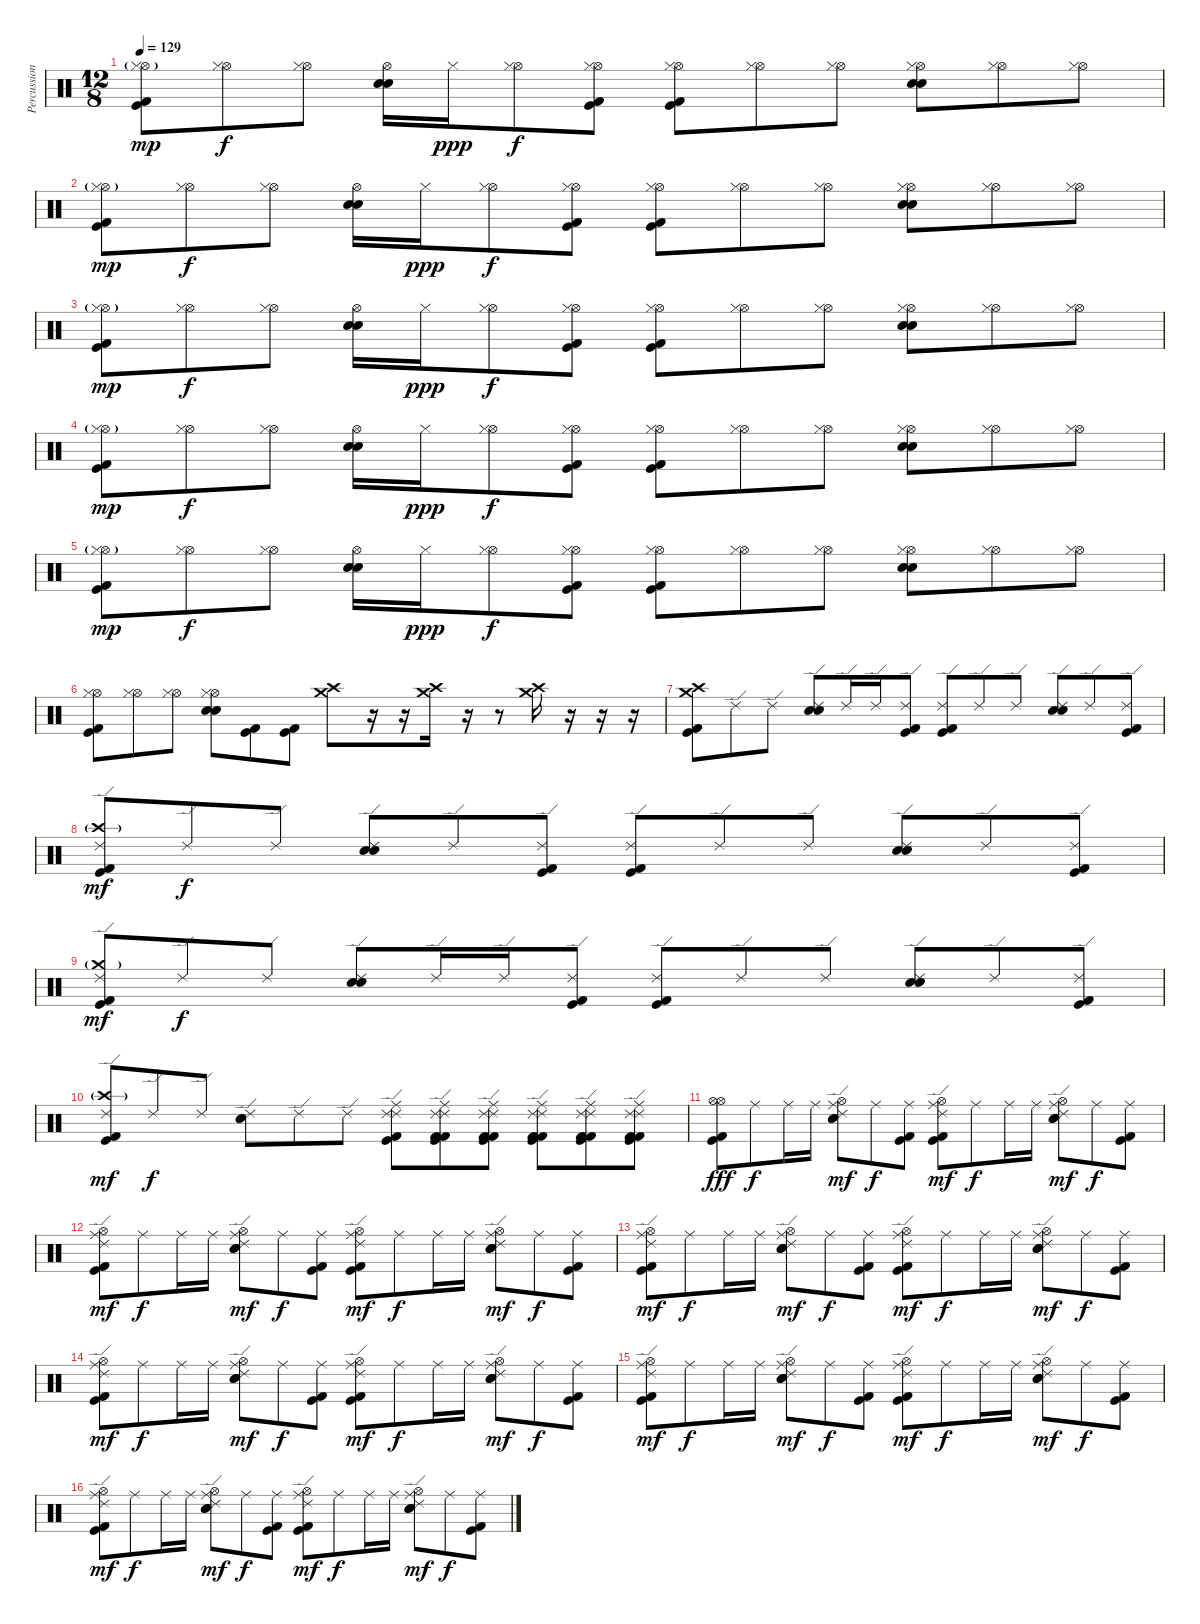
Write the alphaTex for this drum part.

\track ("Percussion" "Percussion") {instrument percussion}
\staff {score}
\articulation defaults
\ts (12 8)
\tempo 129
\clef neutral
\ks c
("Hi-Hat (open)"{g} "Hi-Hat (closed)" "Kick (hit) 2" "Kick (hit)").8{dy mp} ("Hi-Hat (open)" "Hi-Hat (closed)").8{dy f} ("Hi-Hat (open)" "Hi-Hat (closed)").8 ("Hi-Hat (open)" "Electric Snare (hit)" "Electric Snare (hit)").16 "Hi-Hat (closed)".16{dy ppp} ("Hi-Hat (open)" "Hi-Hat (closed)").8{dy f} ("Hi-Hat (open)" "Hi-Hat (closed)" "Kick (hit) 2" "Kick (hit)").8 ("Hi-Hat (open)" "Hi-Hat (closed)" "Kick (hit) 2" "Kick (hit)").8 ("Hi-Hat (open)" "Hi-Hat (closed)").8 ("Hi-Hat (open)" "Hi-Hat (closed)").8 ("Hi-Hat (open)" "Hi-Hat (closed)" "Electric Snare (hit)" "Electric Snare (hit)").8 ("Hi-Hat (open)" "Hi-Hat (closed)").8 ("Hi-Hat (open)" "Hi-Hat (closed)").8 |
("Hi-Hat (open)"{g} "Hi-Hat (closed)" "Kick (hit) 2" "Kick (hit)").8{dy mp} ("Hi-Hat (open)" "Hi-Hat (closed)").8{dy f} ("Hi-Hat (open)" "Hi-Hat (closed)").8 ("Hi-Hat (open)" "Electric Snare (hit)" "Electric Snare (hit)").16 "Hi-Hat (closed)".16{dy ppp} ("Hi-Hat (open)" "Hi-Hat (closed)").8{dy f} ("Hi-Hat (open)" "Hi-Hat (closed)" "Kick (hit) 2" "Kick (hit)").8 ("Hi-Hat (open)" "Hi-Hat (closed)" "Kick (hit) 2" "Kick (hit)").8 ("Hi-Hat (open)" "Hi-Hat (closed)").8 ("Hi-Hat (open)" "Hi-Hat (closed)").8 ("Hi-Hat (open)" "Hi-Hat (closed)" "Electric Snare (hit)" "Electric Snare (hit)").8 ("Hi-Hat (open)" "Hi-Hat (closed)").8 ("Hi-Hat (open)" "Hi-Hat (closed)").8 |
("Hi-Hat (open)"{g} "Hi-Hat (closed)" "Kick (hit) 2" "Kick (hit)").8{dy mp} ("Hi-Hat (open)" "Hi-Hat (closed)").8{dy f} ("Hi-Hat (open)" "Hi-Hat (closed)").8 ("Hi-Hat (open)" "Electric Snare (hit)" "Electric Snare (hit)").16 "Hi-Hat (closed)".16{dy ppp} ("Hi-Hat (open)" "Hi-Hat (closed)").8{dy f} ("Hi-Hat (open)" "Hi-Hat (closed)" "Kick (hit) 2" "Kick (hit)").8 ("Hi-Hat (open)" "Hi-Hat (closed)" "Kick (hit) 2" "Kick (hit)").8 ("Hi-Hat (open)" "Hi-Hat (closed)").8 ("Hi-Hat (open)" "Hi-Hat (closed)").8 ("Hi-Hat (open)" "Hi-Hat (closed)" "Electric Snare (hit)" "Electric Snare (hit)").8 ("Hi-Hat (open)" "Hi-Hat (closed)").8 ("Hi-Hat (open)" "Hi-Hat (closed)").8 |
("Hi-Hat (open)"{g} "Hi-Hat (closed)" "Kick (hit) 2" "Kick (hit)").8{dy mp} ("Hi-Hat (open)" "Hi-Hat (closed)").8{dy f} ("Hi-Hat (open)" "Hi-Hat (closed)").8 ("Hi-Hat (open)" "Electric Snare (hit)" "Electric Snare (hit)").16 "Hi-Hat (closed)".16{dy ppp} ("Hi-Hat (open)" "Hi-Hat (closed)").8{dy f} ("Hi-Hat (open)" "Hi-Hat (closed)" "Kick (hit) 2" "Kick (hit)").8 ("Hi-Hat (open)" "Hi-Hat (closed)" "Kick (hit) 2" "Kick (hit)").8 ("Hi-Hat (open)" "Hi-Hat (closed)").8 ("Hi-Hat (open)" "Hi-Hat (closed)").8 ("Hi-Hat (open)" "Hi-Hat (closed)" "Electric Snare (hit)" "Electric Snare (hit)").8 ("Hi-Hat (open)" "Hi-Hat (closed)").8 ("Hi-Hat (open)" "Hi-Hat (closed)").8 |
("Hi-Hat (open)"{g} "Hi-Hat (closed)" "Kick (hit) 2" "Kick (hit)").8{dy mp} ("Hi-Hat (open)" "Hi-Hat (closed)").8{dy f} ("Hi-Hat (open)" "Hi-Hat (closed)").8 ("Hi-Hat (open)" "Electric Snare (hit)" "Electric Snare (hit)").16 "Hi-Hat (closed)".16{dy ppp} ("Hi-Hat (open)" "Hi-Hat (closed)").8{dy f} ("Hi-Hat (open)" "Hi-Hat (closed)" "Kick (hit) 2" "Kick (hit)").8 ("Hi-Hat (open)" "Hi-Hat (closed)" "Kick (hit) 2" "Kick (hit)").8 ("Hi-Hat (open)" "Hi-Hat (closed)").8 ("Hi-Hat (open)" "Hi-Hat (closed)").8 ("Hi-Hat (open)" "Hi-Hat (closed)" "Electric Snare (hit)" "Electric Snare (hit)").8 ("Hi-Hat (open)" "Hi-Hat (closed)").8 ("Hi-Hat (open)" "Hi-Hat (closed)").8 |
("Hi-Hat (open)" "Hi-Hat (closed)" "Kick (hit)" "Kick (hit) 2").8 ("Hi-Hat (open)" "Hi-Hat (closed)").8 ("Hi-Hat (open)" "Hi-Hat (closed)").8 ("Hi-Hat (open)" "Hi-Hat (closed)" "Electric Snare (hit)" "Electric Snare (hit)").8 ("Kick (hit)" "Kick (hit) 2").8 ("Kick (hit)" "Kick (hit) 2").8 ("Crash high (hit)" "Crash medium (hit)").8 r.16 r.16 ("Crash high (hit)" "Crash medium (hit)").16 r.16 r.8 ("Crash high (hit)" "Crash medium (hit)").16 r.16 r.16 r.16 |
("Crash high (hit)" "Crash medium (hit)" "Kick (hit)" "Kick (hit) 2").8 "Ride (edge) 2".8 "Ride (edge) 2".8 ("Ride (edge) 2" "Electric Snare (hit)" "Electric Snare (hit)").8 "Ride (edge) 2".16 "Ride (edge) 2".16 ("Ride (edge) 2" "Kick (hit)" "Kick (hit) 2").8 ("Ride (edge) 2" "Kick (hit)" "Kick (hit) 2").8 "Ride (edge) 2".8 "Ride (edge) 2".8 ("Ride (edge) 2" "Electric Snare (hit)" "Electric Snare (hit)").8 "Ride (edge) 2".8 ("Ride (edge) 2" "Kick (hit)" "Kick (hit) 2").8 |
("Ride (edge) 2" "Crash high (hit)"{g} "Kick (hit)" "Kick (hit) 2").8{dy mf} "Ride (edge) 2".8{dy f} "Ride (edge) 2".8 ("Ride (edge) 2" "Electric Snare (hit)" "Electric Snare (hit)").8 "Ride (edge) 2".8 ("Ride (edge) 2" "Kick (hit)" "Kick (hit) 2").8 ("Ride (edge) 2" "Kick (hit)" "Kick (hit) 2").8 "Ride (edge) 2".8 "Ride (edge) 2".8 ("Ride (edge) 2" "Electric Snare (hit)" "Electric Snare (hit)").8 "Ride (edge) 2".8 ("Ride (edge) 2" "Kick (hit)" "Kick (hit) 2").8 |
("Ride (edge) 2" "Crash medium (hit)"{g} "Kick (hit)" "Kick (hit) 2").8{dy mf} "Ride (edge) 2".8{dy f} "Ride (edge) 2".8 ("Ride (edge) 2" "Electric Snare (hit)" "Electric Snare (hit)").8 "Ride (edge) 2".16 "Ride (edge) 2".16 ("Ride (edge) 2" "Kick (hit)" "Kick (hit) 2").8 ("Ride (edge) 2" "Kick (hit)" "Kick (hit) 2").8 "Ride (edge) 2".8 "Ride (edge) 2".8 ("Ride (edge) 2" "Electric Snare (hit)" "Electric Snare (hit)").8 "Ride (edge) 2".8 ("Ride (edge) 2" "Kick (hit)" "Kick (hit) 2").8 |
("Ride (edge) 2" "Crash high (hit)"{g} "Kick (hit)" "Kick (hit) 2").8{dy mf} "Ride (edge) 2".8{dy f} "Ride (edge) 2".8 ("Ride (edge) 2" "Electric Snare (hit)" "Electric Snare (hit)").8 "Ride (edge) 2".8 "Ride (edge) 2".8 ("Ride (edge) 2" "Ride (edge) 2" "Ride (middle)" "Kick (hit)" "Kick (hit) 2").8 ("Ride (edge) 2" "Ride (edge) 2" "Ride (middle)" "Kick (hit)" "Kick (hit) 2" "Kick (hit) 2").8 ("Ride (edge) 2" "Ride (edge) 2" "Ride (middle)" "Kick (hit)" "Kick (hit) 2" "Kick (hit) 2").8 ("Ride (edge) 2" "Ride (edge) 2" "Ride (middle)" "Kick (hit)" "Kick (hit) 2" "Kick (hit) 2").8 ("Ride (edge) 2" "Ride (edge) 2" "Ride (middle)" "Kick (hit)" "Kick (hit) 2" "Kick (hit) 2").8 ("Ride (edge) 2" "Ride (edge) 2" "Ride (middle)" "Kick (hit)" "Kick (hit) 2" "Kick (hit) 2").8 |
("Hi-Hat (open)" "Hi-Hat (open)" "Kick (hit) 2" "Kick (hit)").8{dy fff} "Ride (middle)".8{dy f} "Ride (middle)".16 "Ride (middle)".16 ("Ride (edge) 2" "Ride (middle)" "Electric Snare (hit)" "Electric Snare (hit)" "Hi-Hat (open)").8{dy mf} "Ride (middle)".8{dy f} ("Ride (middle)" "Kick (hit) 2" "Kick (hit)").8 ("Ride (edge) 2" "Ride (middle)" "Hi-Hat (open)" "Kick (hit) 2" "Kick (hit)").8{dy mf} "Ride (middle)".8{dy f} "Ride (middle)".16 "Ride (middle)".16 ("Ride (edge) 2" "Ride (middle)" "Electric Snare (hit)" "Electric Snare (hit)" "Hi-Hat (open)").8{dy mf} "Ride (middle)".8{dy f} ("Ride (middle)" "Kick (hit) 2" "Kick (hit)").8 |
("Ride (edge) 2" "Ride (middle)" "Hi-Hat (open)" "Kick (hit) 2" "Kick (hit)").8{dy mf} "Ride (middle)".8{dy f} "Ride (middle)".16 "Ride (middle)".16 ("Ride (edge) 2" "Ride (middle)" "Electric Snare (hit)" "Electric Snare (hit)" "Hi-Hat (open)").8{dy mf} "Ride (middle)".8{dy f} ("Ride (middle)" "Kick (hit) 2" "Kick (hit)").8 ("Ride (edge) 2" "Ride (middle)" "Hi-Hat (open)" "Kick (hit) 2" "Kick (hit)").8{dy mf} "Ride (middle)".8{dy f} "Ride (middle)".16 "Ride (middle)".16 ("Ride (edge) 2" "Ride (middle)" "Electric Snare (hit)" "Electric Snare (hit)" "Hi-Hat (open)").8{dy mf} "Ride (middle)".8{dy f} ("Ride (middle)" "Kick (hit) 2" "Kick (hit)").8 |
("Ride (edge) 2" "Ride (middle)" "Hi-Hat (open)" "Kick (hit) 2" "Kick (hit)").8{dy mf} "Ride (middle)".8{dy f} "Ride (middle)".16 "Ride (middle)".16 ("Ride (edge) 2" "Ride (middle)" "Electric Snare (hit)" "Electric Snare (hit)" "Hi-Hat (open)").8{dy mf} "Ride (middle)".8{dy f} ("Ride (middle)" "Kick (hit) 2" "Kick (hit)").8 ("Ride (edge) 2" "Ride (middle)" "Hi-Hat (open)" "Kick (hit) 2" "Kick (hit)").8{dy mf} "Ride (middle)".8{dy f} "Ride (middle)".16 "Ride (middle)".16 ("Ride (edge) 2" "Ride (middle)" "Electric Snare (hit)" "Electric Snare (hit)" "Hi-Hat (open)").8{dy mf} "Ride (middle)".8{dy f} ("Ride (middle)" "Kick (hit) 2" "Kick (hit)").8 |
("Ride (edge) 2" "Ride (middle)" "Hi-Hat (open)" "Kick (hit) 2" "Kick (hit)").8{dy mf} "Ride (middle)".8{dy f} "Ride (middle)".16 "Ride (middle)".16 ("Ride (edge) 2" "Ride (middle)" "Electric Snare (hit)" "Electric Snare (hit)" "Hi-Hat (open)").8{dy mf} "Ride (middle)".8{dy f} ("Ride (middle)" "Kick (hit) 2" "Kick (hit)").8 ("Ride (edge) 2" "Ride (middle)" "Hi-Hat (open)" "Kick (hit) 2" "Kick (hit)").8{dy mf} "Ride (middle)".8{dy f} "Ride (middle)".16 "Ride (middle)".16 ("Ride (edge) 2" "Ride (middle)" "Electric Snare (hit)" "Electric Snare (hit)" "Hi-Hat (open)").8{dy mf} "Ride (middle)".8{dy f} ("Ride (middle)" "Kick (hit) 2" "Kick (hit)").8 |
("Ride (edge) 2" "Ride (middle)" "Hi-Hat (open)" "Kick (hit) 2" "Kick (hit)").8{dy mf} "Ride (middle)".8{dy f} "Ride (middle)".16 "Ride (middle)".16 ("Ride (edge) 2" "Ride (middle)" "Electric Snare (hit)" "Electric Snare (hit)" "Hi-Hat (open)").8{dy mf} "Ride (middle)".8{dy f} ("Ride (middle)" "Kick (hit) 2" "Kick (hit)").8 ("Ride (edge) 2" "Ride (middle)" "Hi-Hat (open)" "Kick (hit) 2" "Kick (hit)").8{dy mf} "Ride (middle)".8{dy f} "Ride (middle)".16 "Ride (middle)".16 ("Ride (edge) 2" "Ride (middle)" "Electric Snare (hit)" "Electric Snare (hit)" "Hi-Hat (open)").8{dy mf} "Ride (middle)".8{dy f} ("Ride (middle)" "Kick (hit) 2" "Kick (hit)").8 |
("Ride (edge) 2" "Ride (middle)" "Hi-Hat (open)" "Kick (hit) 2" "Kick (hit)").8{dy mf} "Ride (middle)".8{dy f} "Ride (middle)".16 "Ride (middle)".16 ("Ride (edge) 2" "Ride (middle)" "Electric Snare (hit)" "Electric Snare (hit)" "Hi-Hat (open)").8{dy mf} "Ride (middle)".8{dy f} ("Ride (middle)" "Kick (hit) 2" "Kick (hit)").8 ("Ride (edge) 2" "Ride (middle)" "Hi-Hat (open)" "Kick (hit) 2" "Kick (hit)").8{dy mf} "Ride (middle)".8{dy f} "Ride (middle)".16 "Ride (middle)".16 ("Ride (edge) 2" "Ride (middle)" "Electric Snare (hit)" "Electric Snare (hit)" "Hi-Hat (open)").8{dy mf} "Ride (middle)".8{dy f} ("Ride (middle)" "Kick (hit) 2" "Kick (hit)").8
